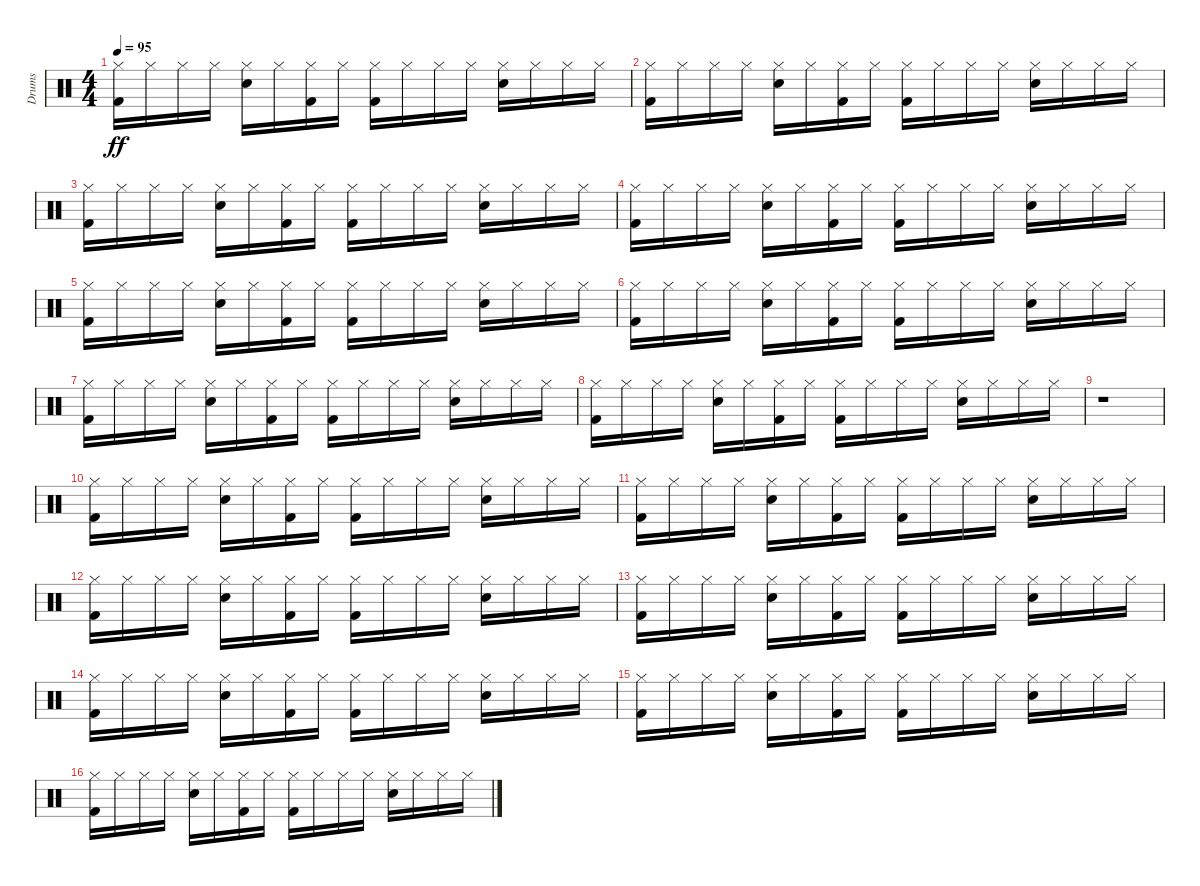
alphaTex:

\track ("Drums" "Drums") {instrument percussion}
\staff {score}
\articulation defaults
\ts (4 4)
\tempo 95
\clef neutral
\ks c
("Kick (hit) 2" "Hi-Hat (closed)").16{dy ff} "Hi-Hat (closed)".16 "Hi-Hat (closed)".16 "Hi-Hat (closed)".16 ("Snare (hit) 2" "Hi-Hat (closed)").16 "Hi-Hat (closed)".16 ("Kick (hit) 2" "Hi-Hat (closed)").16 "Hi-Hat (closed)".16 ("Kick (hit) 2" "Hi-Hat (closed)").16 "Hi-Hat (closed)".16 "Hi-Hat (closed)".16 "Hi-Hat (closed)".16 ("Snare (hit) 2" "Hi-Hat (closed)").16 "Hi-Hat (closed)".16 "Hi-Hat (closed)".16 "Hi-Hat (closed)".16 |
("Kick (hit) 2" "Hi-Hat (closed)").16 "Hi-Hat (closed)".16 "Hi-Hat (closed)".16 "Hi-Hat (closed)".16 ("Snare (hit) 2" "Hi-Hat (closed)").16 "Hi-Hat (closed)".16 ("Kick (hit) 2" "Hi-Hat (closed)").16 "Hi-Hat (closed)".16 ("Kick (hit) 2" "Hi-Hat (closed)").16 "Hi-Hat (closed)".16 "Hi-Hat (closed)".16 "Hi-Hat (closed)".16 ("Snare (hit) 2" "Hi-Hat (closed)").16 "Hi-Hat (closed)".16 "Hi-Hat (closed)".16 "Hi-Hat (closed)".16 |
("Kick (hit) 2" "Hi-Hat (closed)").16 "Hi-Hat (closed)".16 "Hi-Hat (closed)".16 "Hi-Hat (closed)".16 ("Snare (hit) 2" "Hi-Hat (closed)").16 "Hi-Hat (closed)".16 ("Kick (hit) 2" "Hi-Hat (closed)").16 "Hi-Hat (closed)".16 ("Kick (hit) 2" "Hi-Hat (closed)").16 "Hi-Hat (closed)".16 "Hi-Hat (closed)".16 "Hi-Hat (closed)".16 ("Snare (hit) 2" "Hi-Hat (closed)").16 "Hi-Hat (closed)".16 "Hi-Hat (closed)".16 "Hi-Hat (closed)".16 |
("Kick (hit) 2" "Hi-Hat (closed)").16 "Hi-Hat (closed)".16 "Hi-Hat (closed)".16 "Hi-Hat (closed)".16 ("Snare (hit) 2" "Hi-Hat (closed)").16 "Hi-Hat (closed)".16 ("Kick (hit) 2" "Hi-Hat (closed)").16 "Hi-Hat (closed)".16 ("Kick (hit) 2" "Hi-Hat (closed)").16 "Hi-Hat (closed)".16 "Hi-Hat (closed)".16 "Hi-Hat (closed)".16 ("Snare (hit) 2" "Hi-Hat (closed)").16 "Hi-Hat (closed)".16 "Hi-Hat (closed)".16 "Hi-Hat (closed)".16 |
("Kick (hit) 2" "Hi-Hat (closed)").16 "Hi-Hat (closed)".16 "Hi-Hat (closed)".16 "Hi-Hat (closed)".16 ("Snare (hit) 2" "Hi-Hat (closed)").16 "Hi-Hat (closed)".16 ("Kick (hit) 2" "Hi-Hat (closed)").16 "Hi-Hat (closed)".16 ("Kick (hit) 2" "Hi-Hat (closed)").16 "Hi-Hat (closed)".16 "Hi-Hat (closed)".16 "Hi-Hat (closed)".16 ("Snare (hit) 2" "Hi-Hat (closed)").16 "Hi-Hat (closed)".16 "Hi-Hat (closed)".16 "Hi-Hat (closed)".16 |
("Kick (hit) 2" "Hi-Hat (closed)").16 "Hi-Hat (closed)".16 "Hi-Hat (closed)".16 "Hi-Hat (closed)".16 ("Snare (hit) 2" "Hi-Hat (closed)").16 "Hi-Hat (closed)".16 ("Kick (hit) 2" "Hi-Hat (closed)").16 "Hi-Hat (closed)".16 ("Kick (hit) 2" "Hi-Hat (closed)").16 "Hi-Hat (closed)".16 "Hi-Hat (closed)".16 "Hi-Hat (closed)".16 ("Snare (hit) 2" "Hi-Hat (closed)").16 "Hi-Hat (closed)".16 "Hi-Hat (closed)".16 "Hi-Hat (closed)".16 |
("Kick (hit) 2" "Hi-Hat (closed)").16 "Hi-Hat (closed)".16 "Hi-Hat (closed)".16 "Hi-Hat (closed)".16 ("Snare (hit) 2" "Hi-Hat (closed)").16 "Hi-Hat (closed)".16 ("Kick (hit) 2" "Hi-Hat (closed)").16 "Hi-Hat (closed)".16 ("Kick (hit) 2" "Hi-Hat (closed)").16 "Hi-Hat (closed)".16 "Hi-Hat (closed)".16 "Hi-Hat (closed)".16 ("Snare (hit) 2" "Hi-Hat (closed)").16 "Hi-Hat (closed)".16 "Hi-Hat (closed)".16 "Hi-Hat (closed)".16 |
("Kick (hit) 2" "Hi-Hat (closed)").16 "Hi-Hat (closed)".16 "Hi-Hat (closed)".16 "Hi-Hat (closed)".16 ("Snare (hit) 2" "Hi-Hat (closed)").16 "Hi-Hat (closed)".16 ("Kick (hit) 2" "Hi-Hat (closed)").16 "Hi-Hat (closed)".16 ("Kick (hit) 2" "Hi-Hat (closed)").16 "Hi-Hat (closed)".16 "Hi-Hat (closed)".16 "Hi-Hat (closed)".16 ("Snare (hit) 2" "Hi-Hat (closed)").16 "Hi-Hat (closed)".16 "Hi-Hat (closed)".16 "Hi-Hat (closed)".16 |
r.1 |
("Kick (hit) 2" "Hi-Hat (closed)").16 "Hi-Hat (closed)".16 "Hi-Hat (closed)".16 "Hi-Hat (closed)".16 ("Snare (hit) 2" "Hi-Hat (closed)").16 "Hi-Hat (closed)".16 ("Kick (hit) 2" "Hi-Hat (closed)").16 "Hi-Hat (closed)".16 ("Kick (hit) 2" "Hi-Hat (closed)").16 "Hi-Hat (closed)".16 "Hi-Hat (closed)".16 "Hi-Hat (closed)".16 ("Snare (hit) 2" "Hi-Hat (closed)").16 "Hi-Hat (closed)".16 "Hi-Hat (closed)".16 "Hi-Hat (closed)".16 |
("Kick (hit) 2" "Hi-Hat (closed)").16 "Hi-Hat (closed)".16 "Hi-Hat (closed)".16 "Hi-Hat (closed)".16 ("Snare (hit) 2" "Hi-Hat (closed)").16 "Hi-Hat (closed)".16 ("Kick (hit) 2" "Hi-Hat (closed)").16 "Hi-Hat (closed)".16 ("Kick (hit) 2" "Hi-Hat (closed)").16 "Hi-Hat (closed)".16 "Hi-Hat (closed)".16 "Hi-Hat (closed)".16 ("Snare (hit) 2" "Hi-Hat (closed)").16 "Hi-Hat (closed)".16 "Hi-Hat (closed)".16 "Hi-Hat (closed)".16 |
("Kick (hit) 2" "Hi-Hat (closed)").16 "Hi-Hat (closed)".16 "Hi-Hat (closed)".16 "Hi-Hat (closed)".16 ("Snare (hit) 2" "Hi-Hat (closed)").16 "Hi-Hat (closed)".16 ("Kick (hit) 2" "Hi-Hat (closed)").16 "Hi-Hat (closed)".16 ("Kick (hit) 2" "Hi-Hat (closed)").16 "Hi-Hat (closed)".16 "Hi-Hat (closed)".16 "Hi-Hat (closed)".16 ("Snare (hit) 2" "Hi-Hat (closed)").16 "Hi-Hat (closed)".16 "Hi-Hat (closed)".16 "Hi-Hat (closed)".16 |
("Kick (hit) 2" "Hi-Hat (closed)").16 "Hi-Hat (closed)".16 "Hi-Hat (closed)".16 "Hi-Hat (closed)".16 ("Snare (hit) 2" "Hi-Hat (closed)").16 "Hi-Hat (closed)".16 ("Kick (hit) 2" "Hi-Hat (closed)").16 "Hi-Hat (closed)".16 ("Kick (hit) 2" "Hi-Hat (closed)").16 "Hi-Hat (closed)".16 "Hi-Hat (closed)".16 "Hi-Hat (closed)".16 ("Snare (hit) 2" "Hi-Hat (closed)").16 "Hi-Hat (closed)".16 "Hi-Hat (closed)".16 "Hi-Hat (closed)".16 |
("Kick (hit) 2" "Hi-Hat (closed)").16 "Hi-Hat (closed)".16 "Hi-Hat (closed)".16 "Hi-Hat (closed)".16 ("Snare (hit) 2" "Hi-Hat (closed)").16 "Hi-Hat (closed)".16 ("Kick (hit) 2" "Hi-Hat (closed)").16 "Hi-Hat (closed)".16 ("Kick (hit) 2" "Hi-Hat (closed)").16 "Hi-Hat (closed)".16 "Hi-Hat (closed)".16 "Hi-Hat (closed)".16 ("Snare (hit) 2" "Hi-Hat (closed)").16 "Hi-Hat (closed)".16 "Hi-Hat (closed)".16 "Hi-Hat (closed)".16 |
("Kick (hit) 2" "Hi-Hat (closed)").16 "Hi-Hat (closed)".16 "Hi-Hat (closed)".16 "Hi-Hat (closed)".16 ("Snare (hit) 2" "Hi-Hat (closed)").16 "Hi-Hat (closed)".16 ("Kick (hit) 2" "Hi-Hat (closed)").16 "Hi-Hat (closed)".16 ("Kick (hit) 2" "Hi-Hat (closed)").16 "Hi-Hat (closed)".16 "Hi-Hat (closed)".16 "Hi-Hat (closed)".16 ("Snare (hit) 2" "Hi-Hat (closed)").16 "Hi-Hat (closed)".16 "Hi-Hat (closed)".16 "Hi-Hat (closed)".16 |
("Kick (hit) 2" "Hi-Hat (closed)").16 "Hi-Hat (closed)".16 "Hi-Hat (closed)".16 "Hi-Hat (closed)".16 ("Snare (hit) 2" "Hi-Hat (closed)").16 "Hi-Hat (closed)".16 ("Kick (hit) 2" "Hi-Hat (closed)").16 "Hi-Hat (closed)".16 ("Kick (hit) 2" "Hi-Hat (closed)").16 "Hi-Hat (closed)".16 "Hi-Hat (closed)".16 "Hi-Hat (closed)".16 ("Snare (hit) 2" "Hi-Hat (closed)").16 "Hi-Hat (closed)".16 "Hi-Hat (closed)".16 "Hi-Hat (closed)".16
